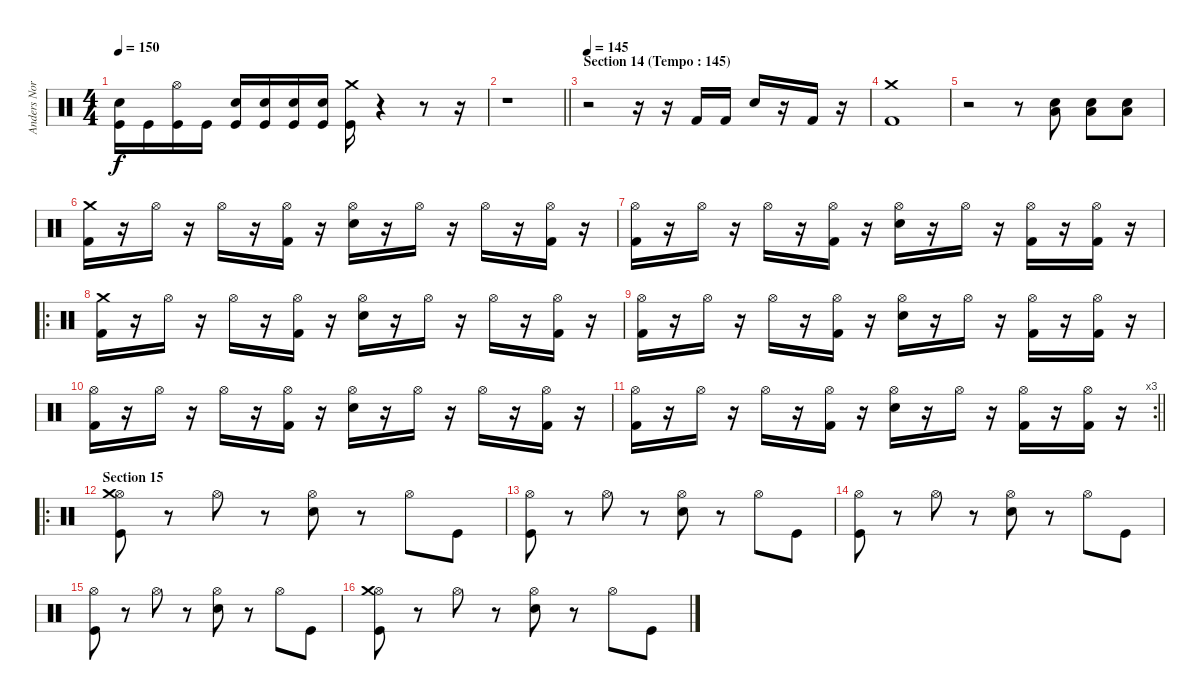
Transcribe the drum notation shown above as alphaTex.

\track ("Anders Nordin" "Anders Nor") {instrument percussion}
\staff {score}
\articulation defaults
\ts (4 4)
\tempo 150
\clef neutral
\ks c
("Snare (hit) 2" "Kick (hit)").16{dy f} "Kick (hit)".16 ("Hi-Hat (open)" "Kick (hit)").16 "Kick (hit)".16 ("Snare (hit) 2" "Kick (hit)").16 ("Snare (hit) 2" "Kick (hit)").16 ("Snare (hit) 2" "Kick (hit)").16 ("Snare (hit) 2" "Kick (hit)").16 ("Crash medium (hit)" "Kick (hit)").16 r.4{volume 0} r.8 r.16 |
\barLineRight lightlight
r.1{volume 16} |
\section ("" "Section 14 (Tempo : 145)")
\tempo 145
r.2 r.16 r.16 "Kick (hit) 2".16 "Kick (hit) 2".16 "Snare (hit) 2".16 r.16 "Kick (hit) 2".16 r.16 |
("Crash medium (hit)" "Kick (hit) 2").1 |
r.2 r.8 ("Snare (hit) 2" "Low Tom (hit)").8 ("Snare (hit) 2" "Low Tom (hit)").8 ("Snare (hit) 2" "Low Tom (hit)").8 |
("Crash medium (hit)" "Kick (hit) 2").16 r.16 "Hi-Hat (open)".16 r.16 "Hi-Hat (open)".16 r.16 ("Hi-Hat (open)" "Kick (hit) 2").16 r.16 ("Hi-Hat (open)" "Snare (hit) 2").16 r.16 "Hi-Hat (open)".16 r.16 "Hi-Hat (open)".16 r.16 ("Hi-Hat (open)" "Kick (hit) 2").16 r.16 |
("Hi-Hat (open)" "Kick (hit) 2").16 r.16 "Hi-Hat (open)".16 r.16 "Hi-Hat (open)".16 r.16 ("Hi-Hat (open)" "Kick (hit) 2").16 r.16 ("Hi-Hat (open)" "Snare (hit) 2").16 r.16 "Hi-Hat (open)".16 r.16 ("Hi-Hat (open)" "Kick (hit) 2").16 r.16 ("Hi-Hat (open)" "Kick (hit) 2").16 r.16 |
\ro
("Crash medium (hit)" "Kick (hit) 2").16 r.16 "Hi-Hat (open)".16 r.16 "Hi-Hat (open)".16 r.16 ("Hi-Hat (open)" "Kick (hit) 2").16 r.16 ("Hi-Hat (open)" "Snare (hit) 2").16 r.16 "Hi-Hat (open)".16 r.16 "Hi-Hat (open)".16 r.16 ("Hi-Hat (open)" "Kick (hit) 2").16 r.16 |
("Hi-Hat (open)" "Kick (hit) 2").16 r.16 "Hi-Hat (open)".16 r.16 "Hi-Hat (open)".16 r.16 ("Hi-Hat (open)" "Kick (hit) 2").16 r.16 ("Hi-Hat (open)" "Snare (hit) 2").16 r.16 "Hi-Hat (open)".16 r.16 ("Hi-Hat (open)" "Kick (hit) 2").16 r.16 ("Hi-Hat (open)" "Kick (hit) 2").16 r.16 |
("Hi-Hat (open)" "Kick (hit) 2").16 r.16 "Hi-Hat (open)".16 r.16 "Hi-Hat (open)".16 r.16 ("Hi-Hat (open)" "Kick (hit) 2").16 r.16 ("Hi-Hat (open)" "Snare (hit) 2").16 r.16 "Hi-Hat (open)".16 r.16 "Hi-Hat (open)".16 r.16 ("Hi-Hat (open)" "Kick (hit) 2").16 r.16 |
\rc 3
\barLineRight lightlight
("Hi-Hat (open)" "Kick (hit) 2").16 r.16 "Hi-Hat (open)".16 r.16 "Hi-Hat (open)".16 r.16 ("Hi-Hat (open)" "Kick (hit) 2").16 r.16 ("Hi-Hat (open)" "Snare (hit) 2").16 r.16 "Hi-Hat (open)".16 r.16 ("Hi-Hat (open)" "Kick (hit) 2").16 r.16 ("Hi-Hat (open)" "Kick (hit) 2").16 r.16 |
\ro
\section ("" "Section 15")
("Hi-Hat (open)" "Crash medium (hit)" "Kick (hit)").8 r.8 "Hi-Hat (open)".8 r.8 ("Hi-Hat (open)" "Snare (hit) 2").8 r.8 "Hi-Hat (open)".8 "Kick (hit)".8 |
("Hi-Hat (open)" "Kick (hit)").8 r.8 "Hi-Hat (open)".8 r.8 ("Hi-Hat (open)" "Snare (hit) 2").8 r.8 "Hi-Hat (open)".8 "Kick (hit)".8 |
("Hi-Hat (open)" "Kick (hit)").8 r.8 "Hi-Hat (open)".8 r.8 ("Hi-Hat (open)" "Snare (hit) 2").8 r.8 "Hi-Hat (open)".8 "Kick (hit)".8 |
("Hi-Hat (open)" "Kick (hit)").8 r.8 "Hi-Hat (open)".8 r.8 ("Hi-Hat (open)" "Snare (hit) 2").8 r.8 "Hi-Hat (open)".8 "Kick (hit)".8 |
("Hi-Hat (open)" "Crash medium (hit)" "Kick (hit)").8 r.8 "Hi-Hat (open)".8 r.8 ("Hi-Hat (open)" "Snare (hit) 2").8 r.8 "Hi-Hat (open)".8 "Kick (hit)".8
